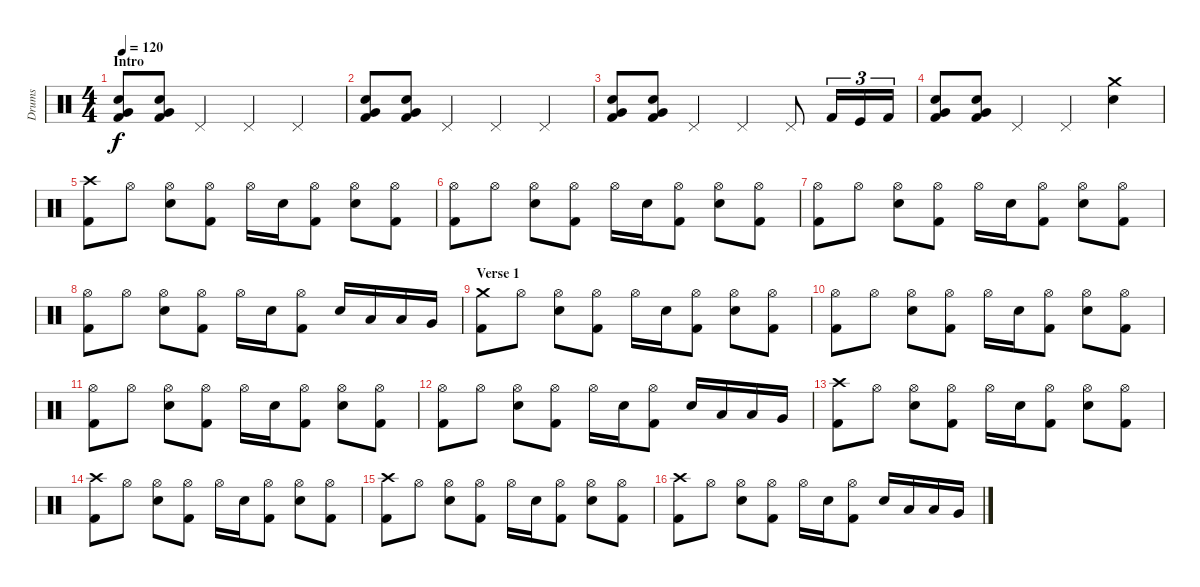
\track ("Drums" "Drums") {instrument percussion}
\staff {score}
\articulation defaults
\ts (4 4)
\section ("" "Intro")
\tempo 120
\clef neutral
\ks c
("Very Low Tom (hit)" "Kick (hit) 2" "Electric Snare (hit)").8{dy f} ("Very Low Tom (hit)" "Kick (hit) 2" "Electric Snare (hit)").8 "Pedal Hi-Hat (hit)".4 "Pedal Hi-Hat (hit)".4 "Pedal Hi-Hat (hit)".4 |
("Very Low Tom (hit)" "Kick (hit) 2" "Electric Snare (hit)").8 ("Very Low Tom (hit)" "Kick (hit) 2" "Electric Snare (hit)").8 "Pedal Hi-Hat (hit)".4 "Pedal Hi-Hat (hit)".4 "Pedal Hi-Hat (hit)".4 |
("Very Low Tom (hit)" "Kick (hit) 2" "Electric Snare (hit)").8 ("Very Low Tom (hit)" "Kick (hit) 2" "Electric Snare (hit)").8 "Pedal Hi-Hat (hit)".4 "Pedal Hi-Hat (hit)".4 "Pedal Hi-Hat (hit)".8 "Kick (hit) 2".16{tu (3 2)} "Kick (hit)".16{tu (3 2)} "Kick (hit) 2".16{tu (3 2)} |
("Very Low Tom (hit)" "Kick (hit) 2" "Electric Snare (hit)").8 ("Very Low Tom (hit)" "Kick (hit) 2" "Electric Snare (hit)").8 "Pedal Hi-Hat (hit)".4 "Pedal Hi-Hat (hit)".4 ("Electric Snare (hit)" "Crash medium (hit)").4 |
("Kick (hit) 2" "Crash high (hit)").8 "Hi-Hat (open)".8 ("Electric Snare (hit)" "Hi-Hat (open)").8 ("Kick (hit) 2" "Hi-Hat (open)").8 "Hi-Hat (open)".16 "Electric Snare (hit)".16 ("Kick (hit) 2" "Hi-Hat (open)").8 ("Electric Snare (hit)" "Hi-Hat (open)").8 ("Kick (hit) 2" "Hi-Hat (open)").8 |
("Kick (hit) 2" "Hi-Hat (open)").8 "Hi-Hat (open)".8 ("Electric Snare (hit)" "Hi-Hat (open)").8 ("Kick (hit) 2" "Hi-Hat (open)").8 "Hi-Hat (open)".16 "Electric Snare (hit)".16 ("Kick (hit) 2" "Hi-Hat (open)").8 ("Electric Snare (hit)" "Hi-Hat (open)").8 ("Kick (hit) 2" "Hi-Hat (open)").8 |
("Kick (hit) 2" "Hi-Hat (open)").8 "Hi-Hat (open)".8 ("Electric Snare (hit)" "Hi-Hat (open)").8 ("Kick (hit) 2" "Hi-Hat (open)").8 "Hi-Hat (open)".16 "Electric Snare (hit)".16 ("Kick (hit) 2" "Hi-Hat (open)").8 ("Electric Snare (hit)" "Hi-Hat (open)").8 ("Kick (hit) 2" "Hi-Hat (open)").8 |
("Kick (hit) 2" "Hi-Hat (open)").8 "Hi-Hat (open)".8 ("Electric Snare (hit)" "Hi-Hat (open)").8 ("Kick (hit) 2" "Hi-Hat (open)").8 "Hi-Hat (open)".16 "Electric Snare (hit)".16 ("Kick (hit) 2" "Hi-Hat (open)").8 "Electric Snare (hit)".16 "Low Tom (hit)".16 "Low Tom (hit)".16 "Very Low Tom (hit)".16 |
\section ("" "Verse 1")
("Kick (hit) 2" "Crash medium (hit)").8 "Hi-Hat (open)".8 ("Electric Snare (hit)" "Hi-Hat (open)").8 ("Kick (hit) 2" "Hi-Hat (open)").8 "Hi-Hat (open)".16 "Electric Snare (hit)".16 ("Kick (hit) 2" "Hi-Hat (open)").8 ("Electric Snare (hit)" "Hi-Hat (open)").8 ("Kick (hit) 2" "Hi-Hat (open)").8 |
("Kick (hit) 2" "Hi-Hat (open)").8 "Hi-Hat (open)".8 ("Electric Snare (hit)" "Hi-Hat (open)").8 ("Kick (hit) 2" "Hi-Hat (open)").8 "Hi-Hat (open)".16 "Electric Snare (hit)".16 ("Kick (hit) 2" "Hi-Hat (open)").8 ("Electric Snare (hit)" "Hi-Hat (open)").8 ("Kick (hit) 2" "Hi-Hat (open)").8 |
("Kick (hit) 2" "Hi-Hat (open)").8 "Hi-Hat (open)".8 ("Electric Snare (hit)" "Hi-Hat (open)").8 ("Kick (hit) 2" "Hi-Hat (open)").8 "Hi-Hat (open)".16 "Electric Snare (hit)".16 ("Kick (hit) 2" "Hi-Hat (open)").8 ("Electric Snare (hit)" "Hi-Hat (open)").8 ("Kick (hit) 2" "Hi-Hat (open)").8 |
("Kick (hit) 2" "Hi-Hat (open)").8 "Hi-Hat (open)".8 ("Electric Snare (hit)" "Hi-Hat (open)").8 ("Kick (hit) 2" "Hi-Hat (open)").8 "Hi-Hat (open)".16 "Electric Snare (hit)".16 ("Kick (hit) 2" "Hi-Hat (open)").8 "Electric Snare (hit)".16 "Low Tom (hit)".16 "Low Tom (hit)".16 "Very Low Tom (hit)".16 |
("Kick (hit) 2" "Crash high (hit)").8 "Hi-Hat (open)".8 ("Electric Snare (hit)" "Hi-Hat (open)").8 ("Kick (hit) 2" "Hi-Hat (open)").8 "Hi-Hat (open)".16 "Electric Snare (hit)".16 ("Kick (hit) 2" "Hi-Hat (open)").8 ("Electric Snare (hit)" "Hi-Hat (open)").8 ("Kick (hit) 2" "Hi-Hat (open)").8 |
("Kick (hit) 2" "Crash high (hit)").8 "Hi-Hat (open)".8 ("Electric Snare (hit)" "Hi-Hat (open)").8 ("Kick (hit) 2" "Hi-Hat (open)").8 "Hi-Hat (open)".16 "Electric Snare (hit)".16 ("Kick (hit) 2" "Hi-Hat (open)").8 ("Electric Snare (hit)" "Hi-Hat (open)").8 ("Kick (hit) 2" "Hi-Hat (open)").8 |
("Kick (hit) 2" "Crash high (hit)").8 "Hi-Hat (open)".8 ("Electric Snare (hit)" "Hi-Hat (open)").8 ("Kick (hit) 2" "Hi-Hat (open)").8 "Hi-Hat (open)".16 "Electric Snare (hit)".16 ("Kick (hit) 2" "Hi-Hat (open)").8 ("Electric Snare (hit)" "Hi-Hat (open)").8 ("Kick (hit) 2" "Hi-Hat (open)").8 |
("Kick (hit) 2" "Crash high (hit)").8 "Hi-Hat (open)".8 ("Electric Snare (hit)" "Hi-Hat (open)").8 ("Kick (hit) 2" "Hi-Hat (open)").8 "Hi-Hat (open)".16 "Electric Snare (hit)".16 ("Kick (hit) 2" "Hi-Hat (open)").8 "Electric Snare (hit)".16 "Low Tom (hit)".16 "Low Tom (hit)".16 "Very Low Tom (hit)".16
